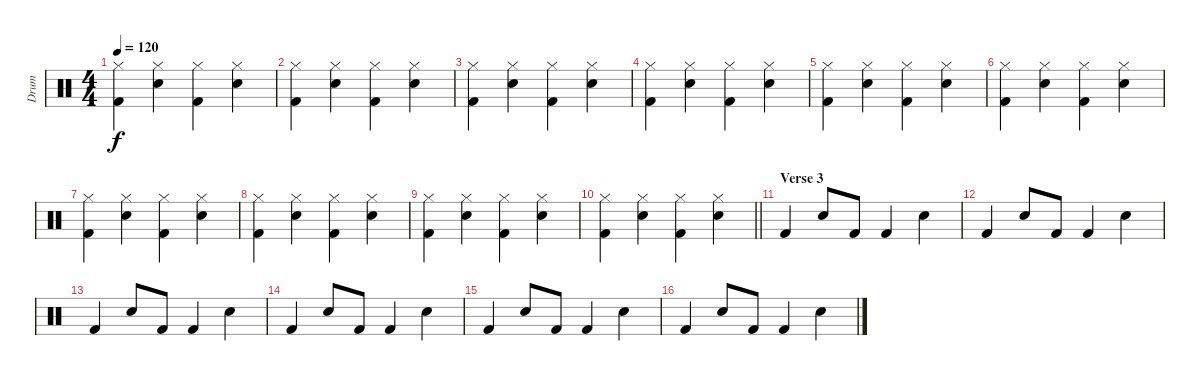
\track ("Drum" "Drum") {instrument percussion}
\staff {score}
\articulation defaults
\ts (4 4)
\tempo 120
\clef neutral
\ks c
("Hi-Hat (closed)" "Kick (hit) 2").4{dy f} ("Hi-Hat (closed)" "Electric Snare (hit)").4 ("Hi-Hat (closed)" "Kick (hit) 2").4 ("Hi-Hat (closed)" "Electric Snare (hit)").4 |
("Hi-Hat (closed)" "Kick (hit) 2").4 ("Hi-Hat (closed)" "Electric Snare (hit)").4 ("Hi-Hat (closed)" "Kick (hit) 2").4 ("Hi-Hat (closed)" "Electric Snare (hit)").4 |
("Hi-Hat (closed)" "Kick (hit) 2").4 ("Hi-Hat (closed)" "Electric Snare (hit)").4 ("Hi-Hat (closed)" "Kick (hit) 2").4 ("Hi-Hat (closed)" "Electric Snare (hit)").4 |
("Hi-Hat (closed)" "Kick (hit) 2").4 ("Hi-Hat (closed)" "Electric Snare (hit)").4 ("Hi-Hat (closed)" "Kick (hit) 2").4 ("Hi-Hat (closed)" "Electric Snare (hit)").4 |
("Hi-Hat (closed)" "Kick (hit) 2").4 ("Hi-Hat (closed)" "Electric Snare (hit)").4 ("Hi-Hat (closed)" "Kick (hit) 2").4 ("Hi-Hat (closed)" "Electric Snare (hit)").4 |
("Hi-Hat (closed)" "Kick (hit) 2").4 ("Hi-Hat (closed)" "Electric Snare (hit)").4 ("Hi-Hat (closed)" "Kick (hit) 2").4 ("Hi-Hat (closed)" "Electric Snare (hit)").4 |
("Hi-Hat (closed)" "Kick (hit) 2").4 ("Hi-Hat (closed)" "Electric Snare (hit)").4 ("Hi-Hat (closed)" "Kick (hit) 2").4 ("Hi-Hat (closed)" "Electric Snare (hit)").4 |
("Hi-Hat (closed)" "Kick (hit) 2").4 ("Hi-Hat (closed)" "Electric Snare (hit)").4 ("Hi-Hat (closed)" "Kick (hit) 2").4 ("Hi-Hat (closed)" "Electric Snare (hit)").4 |
("Hi-Hat (closed)" "Kick (hit) 2").4 ("Hi-Hat (closed)" "Electric Snare (hit)").4 ("Hi-Hat (closed)" "Kick (hit) 2").4 ("Hi-Hat (closed)" "Electric Snare (hit)").4 |
\barLineRight lightlight
("Hi-Hat (closed)" "Kick (hit) 2").4 ("Hi-Hat (closed)" "Electric Snare (hit)").4 ("Hi-Hat (closed)" "Kick (hit) 2").4 ("Hi-Hat (closed)" "Electric Snare (hit)").4 |
\section ("" "Verse 3")
"Kick (hit) 2".4 "Electric Snare (hit)".8 "Kick (hit) 2".8 "Kick (hit) 2".4 "Electric Snare (hit)".4 |
"Kick (hit) 2".4 "Electric Snare (hit)".8 "Kick (hit) 2".8 "Kick (hit) 2".4 "Electric Snare (hit)".4 |
"Kick (hit) 2".4 "Electric Snare (hit)".8 "Kick (hit) 2".8 "Kick (hit) 2".4 "Electric Snare (hit)".4 |
"Kick (hit) 2".4 "Electric Snare (hit)".8 "Kick (hit) 2".8 "Kick (hit) 2".4 "Electric Snare (hit)".4 |
"Kick (hit) 2".4 "Electric Snare (hit)".8 "Kick (hit) 2".8 "Kick (hit) 2".4 "Electric Snare (hit)".4 |
"Kick (hit) 2".4 "Electric Snare (hit)".8 "Kick (hit) 2".8 "Kick (hit) 2".4 "Electric Snare (hit)".4
